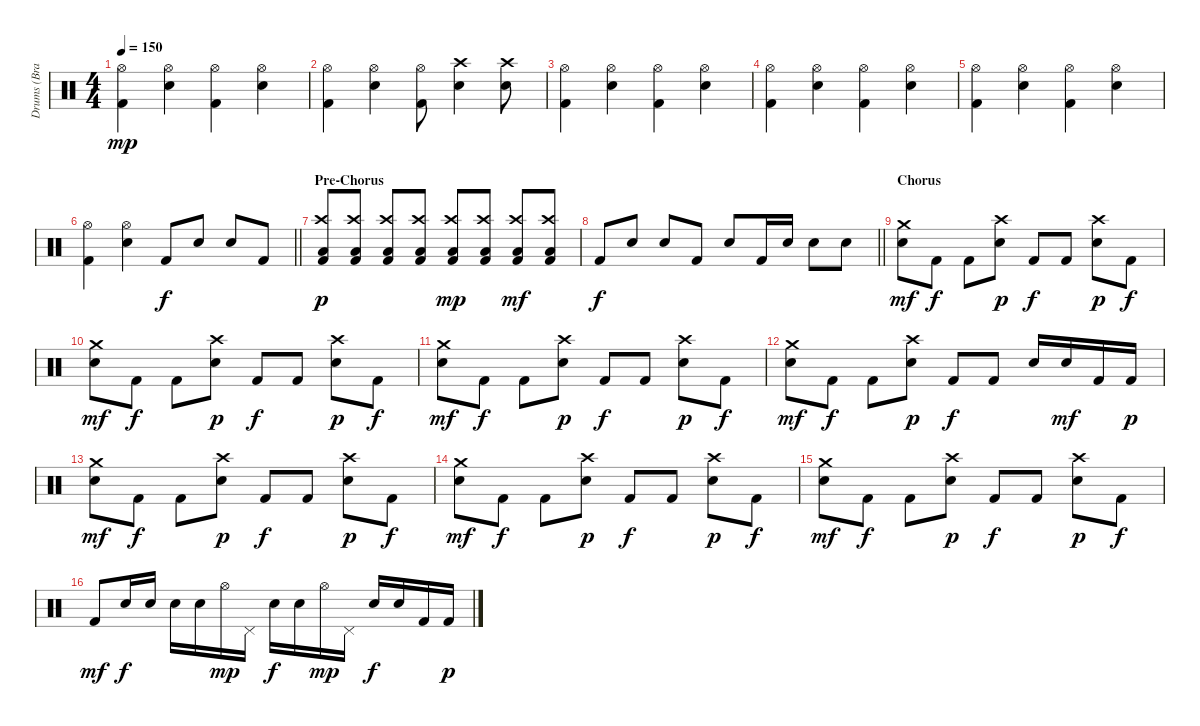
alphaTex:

\track ("Drums (Brandon Saller)" "Drums (Bra") {instrument percussion}
\staff {score}
\articulation defaults
\ts (4 4)
\tempo 150
\clef neutral
\ks c
("Hi-Hat (open)" "Kick (hit) 2").4{dy mp} ("Hi-Hat (open)" "Electric Snare (hit)").4 ("Hi-Hat (open)" "Kick (hit) 2").4 ("Hi-Hat (open)" "Electric Snare (hit)").4 |
("Hi-Hat (open)" "Kick (hit) 2").4 ("Hi-Hat (open)" "Electric Snare (hit)").4 ("Hi-Hat (open)" "Kick (hit) 2").8 ("Crash high (hit)" "Electric Snare (hit)").4 ("Crash high (hit)" "Electric Snare (hit)").8 |
("Hi-Hat (open)" "Kick (hit) 2").4 ("Hi-Hat (open)" "Electric Snare (hit)").4 ("Hi-Hat (open)" "Kick (hit) 2").4 ("Hi-Hat (open)" "Electric Snare (hit)").4 |
("Hi-Hat (open)" "Kick (hit) 2").4 ("Hi-Hat (open)" "Electric Snare (hit)").4 ("Hi-Hat (open)" "Kick (hit) 2").4 ("Hi-Hat (open)" "Electric Snare (hit)").4 |
("Hi-Hat (open)" "Kick (hit) 2").4 ("Hi-Hat (open)" "Electric Snare (hit)").4 ("Hi-Hat (open)" "Kick (hit) 2").4 ("Hi-Hat (open)" "Electric Snare (hit)").4 |
\barLineRight lightlight
("Hi-Hat (open)" "Kick (hit) 2").4 ("Hi-Hat (open)" "Electric Snare (hit)").4 "Kick (hit) 2".8{dy f} "Electric Snare (hit)".8 "Electric Snare (hit)".8 "Kick (hit) 2".8 |
\section ("" "Pre-Chorus")
("Crash high (hit)" "Low Floor Tom (hit)" "Kick (hit) 2").8{dy p} ("Crash high (hit)" "Low Floor Tom (hit)" "Kick (hit) 2").8 ("Crash high (hit)" "Low Floor Tom (hit)" "Kick (hit) 2").8 ("Crash high (hit)" "Low Floor Tom (hit)" "Kick (hit) 2").8 ("Crash high (hit)" "Low Floor Tom (hit)" "Kick (hit) 2").8{dy mp} ("Crash high (hit)" "Low Floor Tom (hit)" "Kick (hit) 2").8 ("Crash high (hit)" "Low Floor Tom (hit)" "Kick (hit) 2").8{dy mf} ("Crash high (hit)" "Low Floor Tom (hit)" "Kick (hit) 2").8 |
\barLineRight lightlight "Kick (hit) 2".8{dy f} "Electric Snare (hit)".8 "Electric Snare (hit)".8 "Kick (hit) 2".8 "Electric Snare (hit)".8 "Kick (hit) 2".16 "Electric Snare (hit)".16 "Electric Snare (hit)".8 "Electric Snare (hit)".8
|
\section ("" "Chorus")
("Crash medium (hit)" "Electric Snare (hit)").8{dy mf} "Kick (hit) 2".8{dy f} "Kick (hit) 2".8 ("Crash high (hit)" "Electric Snare (hit)").8{dy p} "Kick (hit) 2".8{dy f} "Kick (hit) 2".8 ("Crash high (hit)" "Electric Snare (hit)").8{dy p} "Kick (hit) 2".8{dy f} |
("Crash medium (hit)" "Electric Snare (hit)").8{dy mf} "Kick (hit) 2".8{dy f} "Kick (hit) 2".8 ("Crash high (hit)" "Electric Snare (hit)").8{dy p} "Kick (hit) 2".8{dy f} "Kick (hit) 2".8 ("Crash high (hit)" "Electric Snare (hit)").8{dy p} "Kick (hit) 2".8{dy f} |
("Crash medium (hit)" "Electric Snare (hit)").8{dy mf} "Kick (hit) 2".8{dy f} "Kick (hit) 2".8 ("Crash high (hit)" "Electric Snare (hit)").8{dy p} "Kick (hit) 2".8{dy f} "Kick (hit) 2".8 ("Crash high (hit)" "Electric Snare (hit)").8{dy p} "Kick (hit) 2".8{dy f} |
("Crash medium (hit)" "Electric Snare (hit)").8{dy mf} "Kick (hit) 2".8{dy f} "Kick (hit) 2".8 ("Crash high (hit)" "Electric Snare (hit)").8{dy p} "Kick (hit) 2".8{dy f} "Kick (hit) 2".8 "Electric Snare (hit)".16 "Electric Snare (hit)".16{dy mf} "Kick (hit) 2".16 "Kick (hit) 2".16{dy p} |
("Crash medium (hit)" "Electric Snare (hit)").8{dy mf} "Kick (hit) 2".8{dy f} "Kick (hit) 2".8 ("Crash high (hit)" "Electric Snare (hit)").8{dy p} "Kick (hit) 2".8{dy f} "Kick (hit) 2".8 ("Crash high (hit)" "Electric Snare (hit)").8{dy p} "Kick (hit) 2".8{dy f} |
("Crash medium (hit)" "Electric Snare (hit)").8{dy mf} "Kick (hit) 2".8{dy f} "Kick (hit) 2".8 ("Crash high (hit)" "Electric Snare (hit)").8{dy p} "Kick (hit) 2".8{dy f} "Kick (hit) 2".8 ("Crash high (hit)" "Electric Snare (hit)").8{dy p} "Kick (hit) 2".8{dy f} |
("Crash medium (hit)" "Electric Snare (hit)").8{dy mf} "Kick (hit) 2".8{dy f} "Kick (hit) 2".8 ("Crash high (hit)" "Electric Snare (hit)").8{dy p} "Kick (hit) 2".8{dy f} "Kick (hit) 2".8 ("Crash high (hit)" "Electric Snare (hit)").8{dy p} "Kick (hit) 2".8{dy f} |
"Kick (hit) 2".8{dy mf} "Electric Snare (hit)".16{dy f} "Electric Snare (hit)".16 "Electric Snare (hit)".16 "Electric Snare (hit)".16 "Hi-Hat (open)".16{dy mp} "Pedal Hi-Hat (hit)".16 "Electric Snare (hit)".16{dy f} "Electric Snare (hit)".16 "Hi-Hat (open)".16{dy mp} "Pedal Hi-Hat (hit)".16 "Electric Snare (hit)".16{dy f} "Electric Snare (hit)".16 "Kick (hit) 2".16 "Kick (hit) 2".16{dy p}
